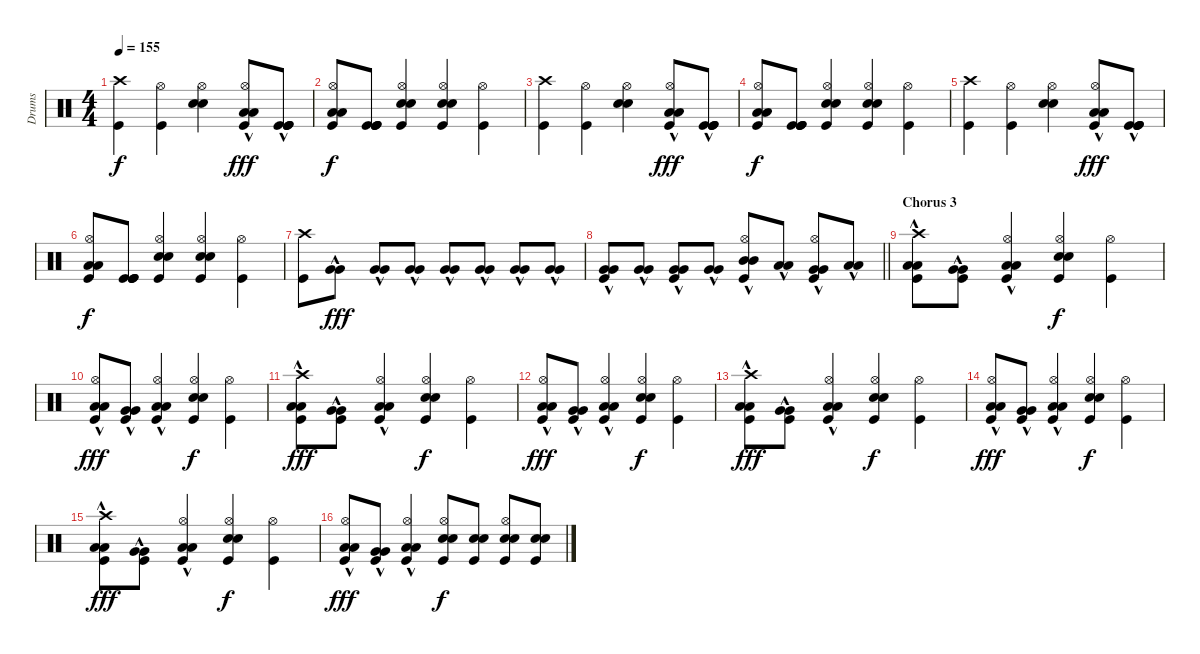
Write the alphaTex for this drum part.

\track ("Drums" "Drums") {instrument percussion}
\staff {score}
\articulation defaults
\ts (4 4)
\tempo 155
\clef neutral
\ks c
("Crash high (hit)" "Kick (hit)").4{dy f} ("Hi-Hat (open)" "Kick (hit)").4 ("Hi-Hat (open)" "Snare (hit) 2" "Electric Snare (hit)").4 ("Hi-Hat (open)" "Low Tom (hit)"{hac} "Low Tom (hit)"{hac} "Kick (hit)"{hac}).8{dy fff} ("Kick (hit)"{hac} "Kick (hit)"{hac} "Kick (hit)"{hac} "Kick (hit)"{hac}).8 |
("Hi-Hat (open)" "Low Tom (hit)" "Low Tom (hit)" "Kick (hit)").8{dy f} ("Kick (hit)" "Kick (hit)" "Kick (hit)" "Kick (hit)").8 ("Hi-Hat (open)" "Snare (hit) 2" "Electric Snare (hit)" "Kick (hit)").4 ("Hi-Hat (open)" "Snare (hit) 2" "Electric Snare (hit)" "Kick (hit)").4 ("Hi-Hat (open)" "Kick (hit)").4 |
("Crash high (hit)" "Kick (hit)").4 ("Hi-Hat (open)" "Kick (hit)").4 ("Hi-Hat (open)" "Snare (hit) 2" "Electric Snare (hit)").4 ("Hi-Hat (open)" "Low Tom (hit)"{hac} "Low Tom (hit)"{hac} "Kick (hit)"{hac}).8{dy fff} ("Kick (hit)"{hac} "Kick (hit)"{hac} "Kick (hit)"{hac} "Kick (hit)"{hac}).8 |
("Hi-Hat (open)" "Low Tom (hit)" "Low Tom (hit)" "Kick (hit)").8{dy f} ("Kick (hit)" "Kick (hit)" "Kick (hit)" "Kick (hit)").8 ("Hi-Hat (open)" "Snare (hit) 2" "Electric Snare (hit)" "Kick (hit)").4 ("Hi-Hat (open)" "Snare (hit) 2" "Electric Snare (hit)" "Kick (hit)").4 ("Hi-Hat (open)" "Kick (hit)").4 |
("Crash high (hit)" "Kick (hit)").4 ("Hi-Hat (open)" "Kick (hit)").4 ("Hi-Hat (open)" "Snare (hit) 2" "Electric Snare (hit)").4 ("Hi-Hat (open)" "Low Tom (hit)"{hac} "Low Tom (hit)"{hac} "Kick (hit)"{hac}).8{dy fff} ("Kick (hit)"{hac} "Kick (hit)"{hac} "Kick (hit)"{hac} "Kick (hit)"{hac}).8 |
("Hi-Hat (open)" "Low Tom (hit)" "Low Tom (hit)" "Kick (hit)").8{dy f} ("Kick (hit)" "Kick (hit)" "Kick (hit)" "Kick (hit)").8 ("Hi-Hat (open)" "Snare (hit) 2" "Electric Snare (hit)" "Kick (hit)").4 ("Hi-Hat (open)" "Snare (hit) 2" "Electric Snare (hit)" "Kick (hit)").4 ("Hi-Hat (open)" "Kick (hit)").4 |
("Crash high (hit)" "Kick (hit)").8 ("Very Low Tom (hit)"{hac} "Very Low Tom (hit)"{hac}).8{dy fff} ("Very Low Tom (hit)"{hac} "Very Low Tom (hit)"{hac}).8 ("Very Low Tom (hit)"{hac} "Very Low Tom (hit)"{hac}).8 ("Very Low Tom (hit)"{hac} "Very Low Tom (hit)"{hac}).8 ("Very Low Tom (hit)"{hac} "Very Low Tom (hit)"{hac}).8 ("Very Low Tom (hit)"{hac} "Very Low Tom (hit)"{hac}).8 ("Very Low Tom (hit)"{hac} "Very Low Tom (hit)"{hac}).8 |
\barLineRight lightlight
("Very Low Tom (hit)"{hac} "Very Low Tom (hit)"{hac} "Kick (hit)"{hac}).8 ("Very Low Tom (hit)"{hac} "Very Low Tom (hit)"{hac}).8 ("Very Low Tom (hit)"{hac} "Very Low Tom (hit)"{hac} "Kick (hit)"{hac}).8 ("Very Low Tom (hit)"{hac} "Very Low Tom (hit)"{hac}).8 ("Hi-Hat (open)" "Mid Tom (hit)"{hac} "Mid Tom (hit)"{hac} "Kick (hit)").8 ("Low Tom (hit)"{hac} "Low Tom (hit)"{hac}).8 ("Hi-Hat (open)" "Very Low Tom (hit)"{hac} "Very Low Tom (hit)"{hac} "Kick (hit)").8 ("Low Floor Tom (hit)"{hac} "Low Floor Tom (hit)"{hac}).8 |
\section ("" "Chorus 3")
("Crash high (hit)" "Low Tom (hit)"{hac} "Low Tom (hit)"{hac} "Kick (hit)").8 ("Very Low Tom (hit)"{hac} "Very Low Tom (hit)"{hac} "Kick (hit)").8 ("Hi-Hat (open)" "Low Floor Tom (hit)"{hac} "Low Floor Tom (hit)"{hac} "Kick (hit)").4 ("Hi-Hat (open)" "Snare (hit) 2" "Electric Snare (hit)" "Kick (hit)").4{dy f} ("Hi-Hat (open)" "Kick (hit)").4 |
("Hi-Hat (open)" "Low Tom (hit)"{hac} "Low Tom (hit)"{hac} "Kick (hit)").8{dy fff} ("Very Low Tom (hit)"{hac} "Very Low Tom (hit)"{hac} "Kick (hit)").8 ("Hi-Hat (open)" "Low Floor Tom (hit)"{hac} "Low Floor Tom (hit)"{hac} "Kick (hit)").4 ("Hi-Hat (open)" "Snare (hit) 2" "Electric Snare (hit)" "Kick (hit)").4{dy f} ("Hi-Hat (open)" "Kick (hit)").4 |
("Crash high (hit)" "Low Tom (hit)"{hac} "Low Tom (hit)"{hac} "Kick (hit)").8{dy fff} ("Very Low Tom (hit)"{hac} "Very Low Tom (hit)"{hac} "Kick (hit)").8 ("Hi-Hat (open)" "Low Floor Tom (hit)"{hac} "Low Floor Tom (hit)"{hac} "Kick (hit)").4 ("Hi-Hat (open)" "Snare (hit) 2" "Electric Snare (hit)" "Kick (hit)").4{dy f} ("Hi-Hat (open)" "Kick (hit)").4 |
("Hi-Hat (open)" "Low Tom (hit)"{hac} "Low Tom (hit)"{hac} "Kick (hit)").8{dy fff} ("Very Low Tom (hit)"{hac} "Very Low Tom (hit)"{hac} "Kick (hit)").8 ("Hi-Hat (open)" "Low Floor Tom (hit)"{hac} "Low Floor Tom (hit)"{hac} "Kick (hit)").4 ("Hi-Hat (open)" "Snare (hit) 2" "Electric Snare (hit)" "Kick (hit)").4{dy f} ("Hi-Hat (open)" "Kick (hit)").4 |
("Crash high (hit)" "Low Tom (hit)"{hac} "Low Tom (hit)"{hac} "Kick (hit)").8{dy fff} ("Very Low Tom (hit)"{hac} "Very Low Tom (hit)"{hac} "Kick (hit)").8 ("Hi-Hat (open)" "Low Floor Tom (hit)"{hac} "Low Floor Tom (hit)"{hac} "Kick (hit)").4 ("Hi-Hat (open)" "Snare (hit) 2" "Electric Snare (hit)" "Kick (hit)").4{dy f} ("Hi-Hat (open)" "Kick (hit)").4 |
("Hi-Hat (open)" "Low Tom (hit)"{hac} "Low Tom (hit)"{hac} "Kick (hit)").8{dy fff} ("Very Low Tom (hit)"{hac} "Very Low Tom (hit)"{hac} "Kick (hit)").8 ("Hi-Hat (open)" "Low Floor Tom (hit)"{hac} "Low Floor Tom (hit)"{hac} "Kick (hit)").4 ("Hi-Hat (open)" "Snare (hit) 2" "Electric Snare (hit)" "Kick (hit)").4{dy f} ("Hi-Hat (open)" "Kick (hit)").4 |
("Crash high (hit)" "Low Tom (hit)"{hac} "Low Tom (hit)"{hac} "Kick (hit)").8{dy fff} ("Very Low Tom (hit)"{hac} "Very Low Tom (hit)"{hac} "Kick (hit)").8 ("Hi-Hat (open)" "Low Floor Tom (hit)"{hac} "Low Floor Tom (hit)"{hac} "Kick (hit)").4 ("Hi-Hat (open)" "Snare (hit) 2" "Electric Snare (hit)" "Kick (hit)").4{dy f} ("Hi-Hat (open)" "Kick (hit)").4 |
("Hi-Hat (open)" "Low Tom (hit)"{hac} "Low Tom (hit)"{hac} "Kick (hit)").8{dy fff} ("Very Low Tom (hit)"{hac} "Very Low Tom (hit)"{hac} "Kick (hit)").8 ("Hi-Hat (open)" "Low Floor Tom (hit)"{hac} "Low Floor Tom (hit)"{hac} "Kick (hit)").4 ("Hi-Hat (open)" "Snare (hit) 2" "Electric Snare (hit)" "Kick (hit)").8{dy f} ("Snare (hit) 2" "Electric Snare (hit)" "Kick (hit)").8 ("Hi-Hat (open)" "Snare (hit) 2" "Electric Snare (hit)" "Kick (hit)").8 ("Snare (hit) 2" "Electric Snare (hit)" "Kick (hit)").8
